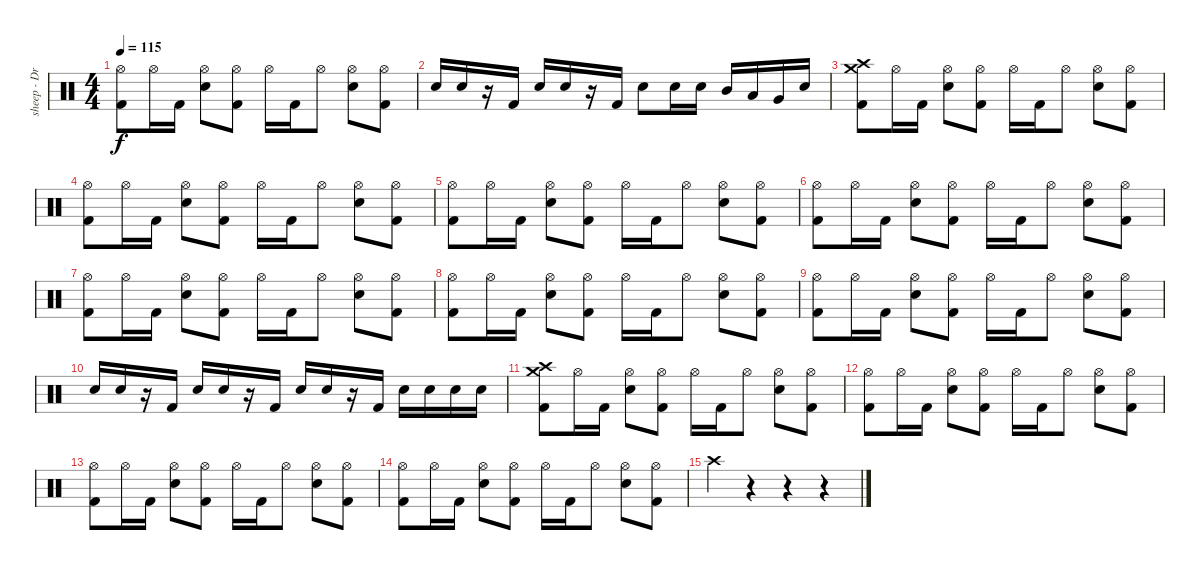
\track ("sheep - Drum track (guide)" "sheep - Dr") {instrument percussion}
\staff {score}
\articulation defaults
\ts (4 4)
\tempo 115
\clef neutral
\ks c
("Hi-Hat (open)" "Kick (hit) 2").8{dy f} "Hi-Hat (open)".16 "Kick (hit) 2".16 ("Hi-Hat (open)" "Electric Snare (hit)").8 ("Hi-Hat (open)" "Kick (hit) 2").8 "Hi-Hat (open)".16 "Kick (hit) 2".16 "Hi-Hat (open)".8 ("Hi-Hat (open)" "Electric Snare (hit)").8 ("Hi-Hat (open)" "Kick (hit) 2").8 |
"Electric Snare (hit)".16 "Electric Snare (hit)".16 r.16 "Kick (hit) 2".16 "Electric Snare (hit)".16 "Electric Snare (hit)".16 r.16 "Kick (hit) 2".16 "Electric Snare (hit)".8 "Electric Snare (hit)".16 "Electric Snare (hit)".16 "Mid Tom (hit)".16 "Low Tom (hit)".16 "Very Low Tom (hit)".16 "Electric Snare (hit)".16 |
("Crash medium (hit)" "Crash high (hit)" "Kick (hit) 2").8 "Hi-Hat (open)".16 "Kick (hit) 2".16 ("Hi-Hat (open)" "Electric Snare (hit)").8 ("Hi-Hat (open)" "Kick (hit) 2").8 "Hi-Hat (open)".16 "Kick (hit) 2".16 "Hi-Hat (open)".8 ("Hi-Hat (open)" "Electric Snare (hit)").8 ("Hi-Hat (open)" "Kick (hit) 2").8 |
("Hi-Hat (open)" "Kick (hit) 2").8 "Hi-Hat (open)".16 "Kick (hit) 2".16 ("Hi-Hat (open)" "Electric Snare (hit)").8 ("Hi-Hat (open)" "Kick (hit) 2").8 "Hi-Hat (open)".16 "Kick (hit) 2".16 "Hi-Hat (open)".8 ("Hi-Hat (open)" "Electric Snare (hit)").8 ("Hi-Hat (open)" "Kick (hit) 2").8 |
("Hi-Hat (open)" "Kick (hit) 2").8 "Hi-Hat (open)".16 "Kick (hit) 2".16 ("Hi-Hat (open)" "Electric Snare (hit)").8 ("Hi-Hat (open)" "Kick (hit) 2").8 "Hi-Hat (open)".16 "Kick (hit) 2".16 "Hi-Hat (open)".8 ("Hi-Hat (open)" "Electric Snare (hit)").8 ("Hi-Hat (open)" "Kick (hit) 2").8 |
("Hi-Hat (open)" "Kick (hit) 2").8 "Hi-Hat (open)".16 "Kick (hit) 2".16 ("Hi-Hat (open)" "Electric Snare (hit)").8 ("Hi-Hat (open)" "Kick (hit) 2").8 "Hi-Hat (open)".16 "Kick (hit) 2".16 "Hi-Hat (open)".8 ("Hi-Hat (open)" "Electric Snare (hit)").8 ("Hi-Hat (open)" "Kick (hit) 2").8 |
("Hi-Hat (open)" "Kick (hit) 2").8 "Hi-Hat (open)".16 "Kick (hit) 2".16 ("Hi-Hat (open)" "Electric Snare (hit)").8 ("Hi-Hat (open)" "Kick (hit) 2").8 "Hi-Hat (open)".16 "Kick (hit) 2".16 "Hi-Hat (open)".8 ("Hi-Hat (open)" "Electric Snare (hit)").8 ("Hi-Hat (open)" "Kick (hit) 2").8 |
("Hi-Hat (open)" "Kick (hit) 2").8 "Hi-Hat (open)".16 "Kick (hit) 2".16 ("Hi-Hat (open)" "Electric Snare (hit)").8 ("Hi-Hat (open)" "Kick (hit) 2").8 "Hi-Hat (open)".16 "Kick (hit) 2".16 "Hi-Hat (open)".8 ("Hi-Hat (open)" "Electric Snare (hit)").8 ("Hi-Hat (open)" "Kick (hit) 2").8 |
("Hi-Hat (open)" "Kick (hit) 2").8 "Hi-Hat (open)".16 "Kick (hit) 2".16 ("Hi-Hat (open)" "Electric Snare (hit)").8 ("Hi-Hat (open)" "Kick (hit) 2").8 "Hi-Hat (open)".16 "Kick (hit) 2".16 "Hi-Hat (open)".8 ("Hi-Hat (open)" "Electric Snare (hit)").8 ("Hi-Hat (open)" "Kick (hit) 2").8 |
"Electric Snare (hit)".16 "Electric Snare (hit)".16 r.16 "Kick (hit) 2".16 "Electric Snare (hit)".16 "Electric Snare (hit)".16 r.16 "Kick (hit) 2".16 "Electric Snare (hit)".16 "Electric Snare (hit)".16 r.16 "Kick (hit) 2".16 "Electric Snare (hit)".16 "Electric Snare (hit)".16 "Electric Snare (hit)".16 "Electric Snare (hit)".16 |
("Crash medium (hit)" "Crash high (hit)" "Kick (hit) 2").8 "Hi-Hat (open)".16 "Kick (hit) 2".16 ("Hi-Hat (open)" "Electric Snare (hit)").8 ("Hi-Hat (open)" "Kick (hit) 2").8 "Hi-Hat (open)".16 "Kick (hit) 2".16 "Hi-Hat (open)".8 ("Hi-Hat (open)" "Electric Snare (hit)").8 ("Hi-Hat (open)" "Kick (hit) 2").8 |
("Hi-Hat (open)" "Kick (hit) 2").8 "Hi-Hat (open)".16 "Kick (hit) 2".16 ("Hi-Hat (open)" "Electric Snare (hit)").8 ("Hi-Hat (open)" "Kick (hit) 2").8 "Hi-Hat (open)".16 "Kick (hit) 2".16 "Hi-Hat (open)".8 ("Hi-Hat (open)" "Electric Snare (hit)").8 ("Hi-Hat (open)" "Kick (hit) 2").8 |
("Hi-Hat (open)" "Kick (hit) 2").8 "Hi-Hat (open)".16 "Kick (hit) 2".16 ("Hi-Hat (open)" "Electric Snare (hit)").8 ("Hi-Hat (open)" "Kick (hit) 2").8 "Hi-Hat (open)".16 "Kick (hit) 2".16 "Hi-Hat (open)".8 ("Hi-Hat (open)" "Electric Snare (hit)").8 ("Hi-Hat (open)" "Kick (hit) 2").8 |
("Hi-Hat (open)" "Kick (hit) 2").8 "Hi-Hat (open)".16 "Kick (hit) 2".16 ("Hi-Hat (open)" "Electric Snare (hit)").8 ("Hi-Hat (open)" "Kick (hit) 2").8 "Hi-Hat (open)".16 "Kick (hit) 2".16 "Hi-Hat (open)".8 ("Hi-Hat (open)" "Electric Snare (hit)").8 ("Hi-Hat (open)" "Kick (hit) 2").8 |
"Crash high (hit)".4 r.4 r.4 r.4
